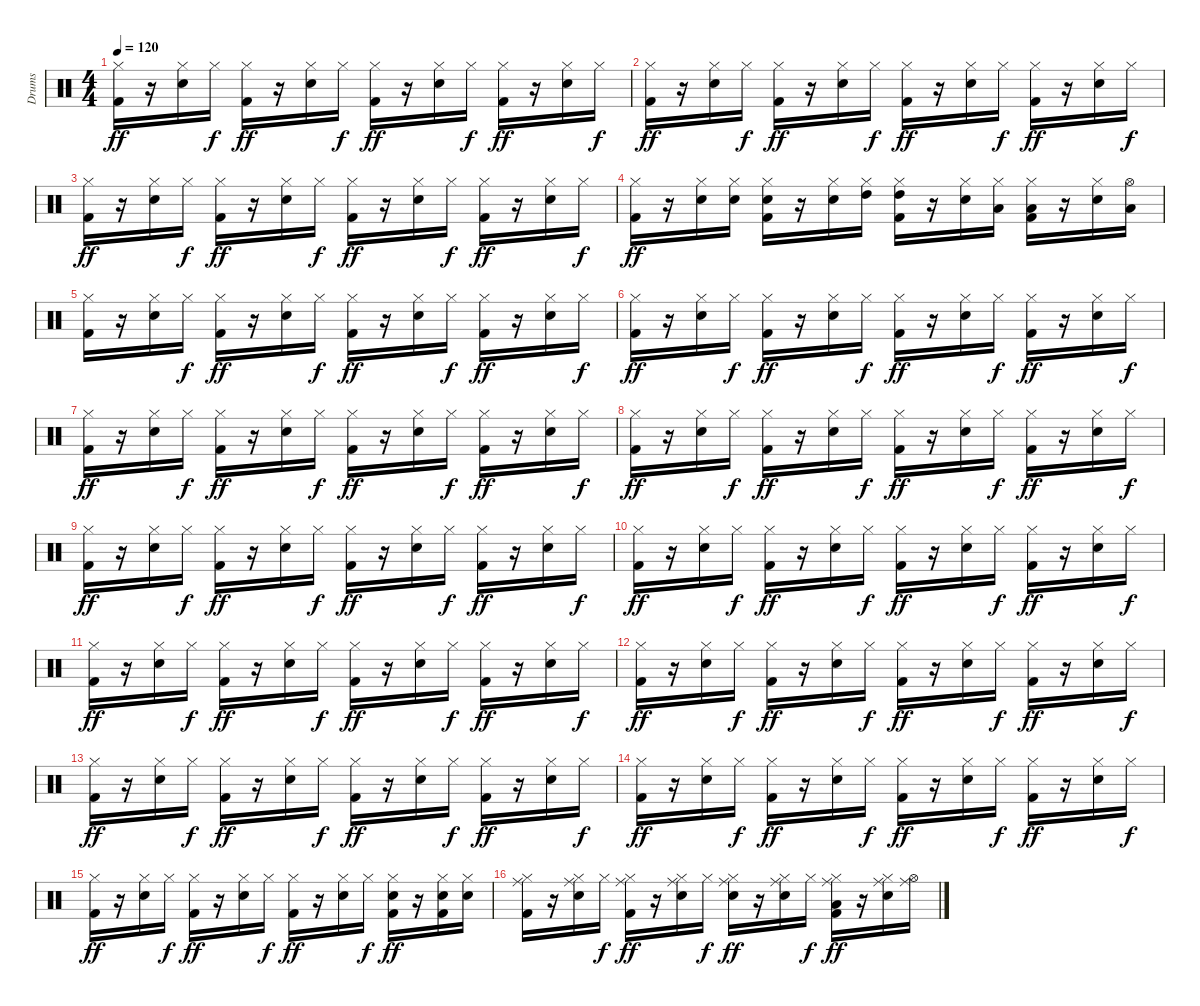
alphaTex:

\track ("Drums" "Drums") {instrument percussion}
\staff {score}
\articulation defaults
\ts (4 4)
\tempo 120
\clef neutral
\ks c
("Hi-Hat (closed)" "Kick (hit) 2").16{dy ff} r.16 ("Hi-Hat (closed)" "Snare (hit) 2").16 "Hi-Hat (closed)".16{dy f} ("Hi-Hat (closed)" "Kick (hit) 2").16{dy ff} r.16 ("Hi-Hat (closed)" "Snare (hit) 2").16 "Hi-Hat (closed)".16{dy f} ("Hi-Hat (closed)" "Kick (hit) 2").16{dy ff} r.16 ("Hi-Hat (closed)" "Snare (hit) 2").16 "Hi-Hat (closed)".16{dy f} ("Hi-Hat (closed)" "Kick (hit) 2").16{dy ff} r.16 ("Hi-Hat (closed)" "Snare (hit) 2").16 "Hi-Hat (closed)".16{dy f} |
("Hi-Hat (closed)" "Kick (hit) 2").16{dy ff} r.16 ("Hi-Hat (closed)" "Snare (hit) 2").16 "Hi-Hat (closed)".16{dy f} ("Hi-Hat (closed)" "Kick (hit) 2").16{dy ff} r.16 ("Hi-Hat (closed)" "Snare (hit) 2").16 "Hi-Hat (closed)".16{dy f} ("Hi-Hat (closed)" "Kick (hit) 2").16{dy ff} r.16 ("Hi-Hat (closed)" "Snare (hit) 2").16 "Hi-Hat (closed)".16{dy f} ("Hi-Hat (closed)" "Kick (hit) 2").16{dy ff} r.16 ("Hi-Hat (closed)" "Snare (hit) 2").16 "Hi-Hat (closed)".16{dy f} |
("Hi-Hat (closed)" "Kick (hit) 2").16{dy ff} r.16 ("Hi-Hat (closed)" "Snare (hit) 2").16 "Hi-Hat (closed)".16{dy f} ("Hi-Hat (closed)" "Kick (hit) 2").16{dy ff} r.16 ("Hi-Hat (closed)" "Snare (hit) 2").16 "Hi-Hat (closed)".16{dy f} ("Hi-Hat (closed)" "Kick (hit) 2").16{dy ff} r.16 ("Hi-Hat (closed)" "Snare (hit) 2").16 "Hi-Hat (closed)".16{dy f} ("Hi-Hat (closed)" "Kick (hit) 2").16{dy ff} r.16 ("Hi-Hat (closed)" "Snare (hit) 2").16 "Hi-Hat (closed)".16{dy f} |
("Hi-Hat (closed)" "Kick (hit) 2").16{dy ff} r.16 ("Hi-Hat (closed)" "Snare (hit) 2").16 ("Hi-Hat (closed)" "Snare (hit) 2").16 ("Hi-Hat (closed)" "Snare (hit) 2" "Kick (hit) 2").16 r.16 ("Hi-Hat (closed)" "Snare (hit) 2").16 ("Hi-Hat (closed)" "High Tom (hit)").16 ("Hi-Hat (closed)" "High Tom (hit)" "Kick (hit) 2").16 r.16 ("Hi-Hat (closed)" "Snare (hit) 2").16 ("Hi-Hat (closed)" "Low Tom (hit)").16 ("Hi-Hat (closed)" "Low Tom (hit)" "Kick (hit) 2").16 r.16 ("Hi-Hat (closed)" "Snare (hit) 2").16 ("Hi-Hat (open)" "Low Floor Tom (hit)").16 |
("Hi-Hat (closed)" "Kick (hit) 2").16 r.16 ("Hi-Hat (closed)" "Snare (hit) 2").16 "Hi-Hat (closed)".16{dy f} ("Hi-Hat (closed)" "Kick (hit) 2").16{dy ff} r.16 ("Hi-Hat (closed)" "Snare (hit) 2").16 "Hi-Hat (closed)".16{dy f} ("Hi-Hat (closed)" "Kick (hit) 2").16{dy ff} r.16 ("Hi-Hat (closed)" "Snare (hit) 2").16 "Hi-Hat (closed)".16{dy f} ("Hi-Hat (closed)" "Kick (hit) 2").16{dy ff} r.16 ("Hi-Hat (closed)" "Snare (hit) 2").16 "Hi-Hat (closed)".16{dy f} |
("Hi-Hat (closed)" "Kick (hit) 2").16{dy ff} r.16 ("Hi-Hat (closed)" "Snare (hit) 2").16 "Hi-Hat (closed)".16{dy f} ("Hi-Hat (closed)" "Kick (hit) 2").16{dy ff} r.16 ("Hi-Hat (closed)" "Snare (hit) 2").16 "Hi-Hat (closed)".16{dy f} ("Hi-Hat (closed)" "Kick (hit) 2").16{dy ff} r.16 ("Hi-Hat (closed)" "Snare (hit) 2").16 "Hi-Hat (closed)".16{dy f} ("Hi-Hat (closed)" "Kick (hit) 2").16{dy ff} r.16 ("Hi-Hat (closed)" "Snare (hit) 2").16 "Hi-Hat (closed)".16{dy f} |
("Hi-Hat (closed)" "Kick (hit) 2").16{dy ff} r.16 ("Hi-Hat (closed)" "Snare (hit) 2").16 "Hi-Hat (closed)".16{dy f} ("Hi-Hat (closed)" "Kick (hit) 2").16{dy ff} r.16 ("Hi-Hat (closed)" "Snare (hit) 2").16 "Hi-Hat (closed)".16{dy f} ("Hi-Hat (closed)" "Kick (hit) 2").16{dy ff} r.16 ("Hi-Hat (closed)" "Snare (hit) 2").16 "Hi-Hat (closed)".16{dy f} ("Hi-Hat (closed)" "Kick (hit) 2").16{dy ff} r.16 ("Hi-Hat (closed)" "Snare (hit) 2").16 "Hi-Hat (closed)".16{dy f} |
("Hi-Hat (closed)" "Kick (hit) 2").16{dy ff} r.16 ("Hi-Hat (closed)" "Snare (hit) 2").16 "Hi-Hat (closed)".16{dy f} ("Hi-Hat (closed)" "Kick (hit) 2").16{dy ff} r.16 ("Hi-Hat (closed)" "Snare (hit) 2").16 "Hi-Hat (closed)".16{dy f} ("Hi-Hat (closed)" "Kick (hit) 2").16{dy ff} r.16 ("Hi-Hat (closed)" "Snare (hit) 2").16 "Hi-Hat (closed)".16{dy f} ("Hi-Hat (closed)" "Kick (hit) 2").16{dy ff} r.16 ("Hi-Hat (closed)" "Snare (hit) 2").16 "Hi-Hat (closed)".16{dy f} |
("Hi-Hat (closed)" "Kick (hit) 2").16{dy ff} r.16 ("Hi-Hat (closed)" "Snare (hit) 2").16 "Hi-Hat (closed)".16{dy f} ("Hi-Hat (closed)" "Kick (hit) 2").16{dy ff} r.16 ("Hi-Hat (closed)" "Snare (hit) 2").16 "Hi-Hat (closed)".16{dy f} ("Hi-Hat (closed)" "Kick (hit) 2").16{dy ff} r.16 ("Hi-Hat (closed)" "Snare (hit) 2").16 "Hi-Hat (closed)".16{dy f} ("Hi-Hat (closed)" "Kick (hit) 2").16{dy ff} r.16 ("Hi-Hat (closed)" "Snare (hit) 2").16 "Hi-Hat (closed)".16{dy f} |
("Hi-Hat (closed)" "Kick (hit) 2").16{dy ff} r.16 ("Hi-Hat (closed)" "Snare (hit) 2").16 "Hi-Hat (closed)".16{dy f} ("Hi-Hat (closed)" "Kick (hit) 2").16{dy ff} r.16 ("Hi-Hat (closed)" "Snare (hit) 2").16 "Hi-Hat (closed)".16{dy f} ("Hi-Hat (closed)" "Kick (hit) 2").16{dy ff} r.16 ("Hi-Hat (closed)" "Snare (hit) 2").16 "Hi-Hat (closed)".16{dy f} ("Hi-Hat (closed)" "Kick (hit) 2").16{dy ff} r.16 ("Hi-Hat (closed)" "Snare (hit) 2").16 "Hi-Hat (closed)".16{dy f} |
("Hi-Hat (closed)" "Kick (hit) 2").16{dy ff} r.16 ("Hi-Hat (closed)" "Snare (hit) 2").16 "Hi-Hat (closed)".16{dy f} ("Hi-Hat (closed)" "Kick (hit) 2").16{dy ff} r.16 ("Hi-Hat (closed)" "Snare (hit) 2").16 "Hi-Hat (closed)".16{dy f} ("Hi-Hat (closed)" "Kick (hit) 2").16{dy ff} r.16 ("Hi-Hat (closed)" "Snare (hit) 2").16 "Hi-Hat (closed)".16{dy f} ("Hi-Hat (closed)" "Kick (hit) 2").16{dy ff} r.16 ("Hi-Hat (closed)" "Snare (hit) 2").16 "Hi-Hat (closed)".16{dy f} |
("Hi-Hat (closed)" "Kick (hit) 2").16{dy ff} r.16 ("Hi-Hat (closed)" "Snare (hit) 2").16 "Hi-Hat (closed)".16{dy f} ("Hi-Hat (closed)" "Kick (hit) 2").16{dy ff} r.16 ("Hi-Hat (closed)" "Snare (hit) 2").16 "Hi-Hat (closed)".16{dy f} ("Hi-Hat (closed)" "Kick (hit) 2").16{dy ff} r.16 ("Hi-Hat (closed)" "Snare (hit) 2").16 "Hi-Hat (closed)".16{dy f} ("Hi-Hat (closed)" "Kick (hit) 2").16{dy ff} r.16 ("Hi-Hat (closed)" "Snare (hit) 2").16 "Hi-Hat (closed)".16{dy f} |
("Hi-Hat (closed)" "Kick (hit) 2").16{dy ff} r.16 ("Hi-Hat (closed)" "Snare (hit) 2").16 "Hi-Hat (closed)".16{dy f} ("Hi-Hat (closed)" "Kick (hit) 2").16{dy ff} r.16 ("Hi-Hat (closed)" "Snare (hit) 2").16 "Hi-Hat (closed)".16{dy f} ("Hi-Hat (closed)" "Kick (hit) 2").16{dy ff} r.16 ("Hi-Hat (closed)" "Snare (hit) 2").16 "Hi-Hat (closed)".16{dy f} ("Hi-Hat (closed)" "Kick (hit) 2").16{dy ff} r.16 ("Hi-Hat (closed)" "Snare (hit) 2").16 "Hi-Hat (closed)".16{dy f} |
("Hi-Hat (closed)" "Kick (hit) 2").16{dy ff} r.16 ("Hi-Hat (closed)" "Snare (hit) 2").16 "Hi-Hat (closed)".16{dy f} ("Hi-Hat (closed)" "Kick (hit) 2").16{dy ff} r.16 ("Hi-Hat (closed)" "Snare (hit) 2").16 "Hi-Hat (closed)".16{dy f} ("Hi-Hat (closed)" "Kick (hit) 2").16{dy ff} r.16 ("Hi-Hat (closed)" "Snare (hit) 2").16 "Hi-Hat (closed)".16{dy f} ("Hi-Hat (closed)" "Kick (hit) 2").16{dy ff} r.16 ("Hi-Hat (closed)" "Snare (hit) 2").16 "Hi-Hat (closed)".16{dy f} |
("Hi-Hat (closed)" "Kick (hit) 2").16{dy ff} r.16 ("Hi-Hat (closed)" "Snare (hit) 2").16 "Hi-Hat (closed)".16{dy f} ("Hi-Hat (closed)" "Kick (hit) 2").16{dy ff} r.16 ("Hi-Hat (closed)" "Snare (hit) 2").16 "Hi-Hat (closed)".16{dy f} ("Hi-Hat (closed)" "Kick (hit) 2").16{dy ff} r.16 ("Hi-Hat (closed)" "Snare (hit) 2").16 "Hi-Hat (closed)".16{dy f} ("Hi-Hat (closed)" "Snare (hit) 2" "Kick (hit) 2").16{dy ff} r.16 ("Hi-Hat (closed)" "Snare (hit) 2" "Kick (hit) 2").16 ("Hi-Hat (closed)" "Snare (hit) 2").16 |
("Hi-Hat (closed)" "Ride (middle)" "Kick (hit) 2").16 r.16 ("Hi-Hat (closed)" "Snare (hit) 2" "Ride (middle)").16 "Hi-Hat (closed)".16{dy f} ("Hi-Hat (closed)" "Ride (middle)" "Kick (hit) 2").16{dy ff} r.16 ("Hi-Hat (closed)" "Snare (hit) 2" "Ride (middle)").16 "Hi-Hat (closed)".16{dy f} ("Hi-Hat (closed)" "Snare (hit) 2" "Ride (middle)").16{dy ff} r.16 ("Hi-Hat (closed)" "Snare (hit) 2" "Ride (middle)").16 "Hi-Hat (closed)".16{dy f} ("Hi-Hat (closed)" "Ride (middle)" "Low Floor Tom (hit)" "Kick (hit) 2").16{dy ff} r.16 ("Hi-Hat (closed)" "Snare (hit) 2" "Ride (middle)").16 ("Hi-Hat (open)" "Ride (middle)").16
